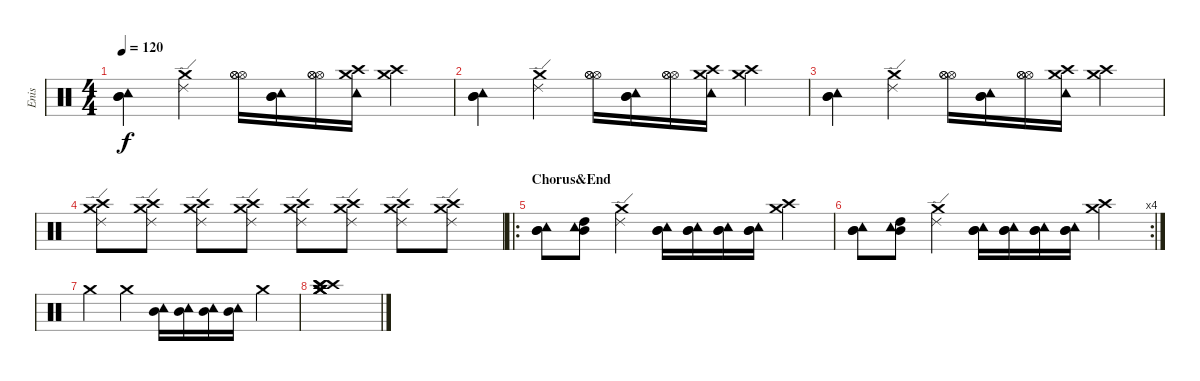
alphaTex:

\track ("Enis" "Enis") {instrument percussion}
\staff {score}
\articulation defaults
\ts (4 4)
\tempo 120
\clef neutral
\ks c
("Mid Tom (hit)" "Mid Tom (hit)" "Tambourine (hit)").4{dy f} ("Ride (edge) 2" "Crash medium (hit)").4 ("Hi-Hat (open)" "Hi-Hat (open)" "Hi-Hat (open)").16 ("Mid Tom (hit)" "Mid Tom (hit)" "Tambourine (hit)").16 ("Hi-Hat (open)" "Hi-Hat (open)" "Hi-Hat (open)").16 ("Crash medium (hit)" "Crash high (hit)" "Tambourine (hit)").16 ("Crash high (hit)" "Crash medium (hit)").4 |
("Mid Tom (hit)" "Mid Tom (hit)" "Tambourine (hit)").4 ("Ride (edge) 2" "Crash medium (hit)").4 ("Hi-Hat (open)" "Hi-Hat (open)" "Hi-Hat (open)").16 ("Mid Tom (hit)" "Mid Tom (hit)" "Tambourine (hit)").16 ("Hi-Hat (open)" "Hi-Hat (open)" "Hi-Hat (open)").16 ("Crash medium (hit)" "Crash high (hit)" "Tambourine (hit)").16 ("Crash high (hit)" "Crash medium (hit)").4 |
("Mid Tom (hit)" "Mid Tom (hit)" "Tambourine (hit)").4 ("Ride (edge) 2" "Crash medium (hit)").4 ("Hi-Hat (open)" "Hi-Hat (open)" "Hi-Hat (open)").16 ("Mid Tom (hit)" "Mid Tom (hit)" "Tambourine (hit)").16 ("Hi-Hat (open)" "Hi-Hat (open)" "Hi-Hat (open)").16 ("Crash medium (hit)" "Crash high (hit)" "Tambourine (hit)").16 ("Crash high (hit)" "Crash medium (hit)").4 |
("Crash medium (hit)" "Crash high (hit)" "Ride (edge) 2").8 ("Crash medium (hit)" "Crash high (hit)" "Ride (edge) 2").8 ("Crash medium (hit)" "Crash high (hit)" "Ride (edge) 2").8 ("Crash medium (hit)" "Crash high (hit)" "Ride (edge) 2").8 ("Crash medium (hit)" "Crash high (hit)" "Ride (edge) 2").8 ("Crash medium (hit)" "Crash high (hit)" "Ride (edge) 2").8 ("Crash medium (hit)" "Crash high (hit)" "Ride (edge) 2").8 ("Crash medium (hit)" "Crash high (hit)" "Ride (edge) 2").8 |
\ro
\section ("" "Chorus&End")
("Mid Tom (hit)" "Mid Tom (hit)" "Tambourine (hit)").8 ("High Tom (hit)" "Mid Tom (hit)" "Tambourine (hit)").8 ("Ride (edge) 2" "Crash medium (hit)").4 ("Mid Tom (hit)" "Mid Tom (hit)" "Tambourine (hit)").16 ("Mid Tom (hit)" "Mid Tom (hit)" "Tambourine (hit)").16 ("Mid Tom (hit)" "Mid Tom (hit)" "Tambourine (hit)").16 ("Mid Tom (hit)" "Mid Tom (hit)" "Tambourine (hit)").16 ("Crash high (hit)" "Crash medium (hit)").4 |
\rc 4
("Mid Tom (hit)" "Mid Tom (hit)" "Tambourine (hit)").8 ("High Tom (hit)" "Mid Tom (hit)" "Tambourine (hit)").8 ("Ride (edge) 2" "Crash medium (hit)").4 ("Mid Tom (hit)" "Mid Tom (hit)" "Tambourine (hit)").16 ("Mid Tom (hit)" "Mid Tom (hit)" "Tambourine (hit)").16 ("Mid Tom (hit)" "Mid Tom (hit)" "Tambourine (hit)").16 ("Mid Tom (hit)" "Mid Tom (hit)" "Tambourine (hit)").16 ("Crash high (hit)" "Crash medium (hit)").4 |
"Crash medium (hit)".4 "Crash medium (hit)".4 ("Mid Tom (hit)" "Tambourine (hit)").16 ("Mid Tom (hit)" "Tambourine (hit)").16 ("Mid Tom (hit)" "Tambourine (hit)").16 ("Mid Tom (hit)" "Tambourine (hit)").16 "Crash medium (hit)".4 |
("Crash medium (hit)" "Crash medium (hit)" "Crash medium (hit)" "Crash high (hit)" "Crash high (hit)" "Crash high (hit)").1
